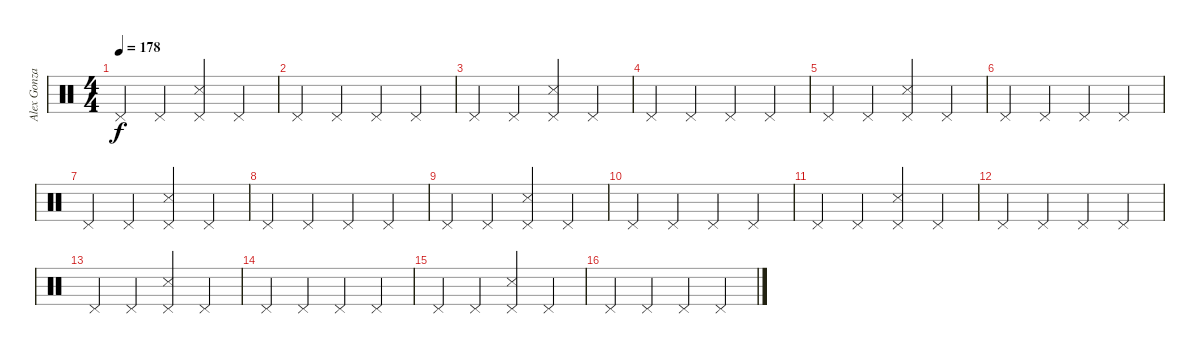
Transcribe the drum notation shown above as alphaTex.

\track ("Alex Gonzales" "Alex Gonza") {instrument percussion}
\staff {score}
\articulation defaults
\ts (4 4)
\tempo 178
\clef neutral
\ks c "Pedal Hi-Hat (hit)".4{dy f} "Pedal Hi-Hat (hit)".4
("Pedal Hi-Hat (hit)" "Snare (side stick) 3").4 "Pedal Hi-Hat (hit)".4 |
"Pedal Hi-Hat (hit)".4 "Pedal Hi-Hat (hit)".4 "Pedal Hi-Hat (hit)".4 "Pedal Hi-Hat (hit)".4 |
"Pedal Hi-Hat (hit)".4 "Pedal Hi-Hat (hit)".4 ("Pedal Hi-Hat (hit)" "Snare (side stick) 3").4 "Pedal Hi-Hat (hit)".4 |
"Pedal Hi-Hat (hit)".4 "Pedal Hi-Hat (hit)".4 "Pedal Hi-Hat (hit)".4 "Pedal Hi-Hat (hit)".4 |
"Pedal Hi-Hat (hit)".4 "Pedal Hi-Hat (hit)".4 ("Pedal Hi-Hat (hit)" "Snare (side stick) 3").4 "Pedal Hi-Hat (hit)".4 |
"Pedal Hi-Hat (hit)".4 "Pedal Hi-Hat (hit)".4 "Pedal Hi-Hat (hit)".4 "Pedal Hi-Hat (hit)".4 |
"Pedal Hi-Hat (hit)".4 "Pedal Hi-Hat (hit)".4 ("Pedal Hi-Hat (hit)" "Snare (side stick) 3").4 "Pedal Hi-Hat (hit)".4 |
"Pedal Hi-Hat (hit)".4 "Pedal Hi-Hat (hit)".4 "Pedal Hi-Hat (hit)".4 "Pedal Hi-Hat (hit)".4 |
"Pedal Hi-Hat (hit)".4 "Pedal Hi-Hat (hit)".4 ("Pedal Hi-Hat (hit)" "Snare (side stick) 3").4 "Pedal Hi-Hat (hit)".4 |
"Pedal Hi-Hat (hit)".4 "Pedal Hi-Hat (hit)".4 "Pedal Hi-Hat (hit)".4 "Pedal Hi-Hat (hit)".4 |
"Pedal Hi-Hat (hit)".4 "Pedal Hi-Hat (hit)".4 ("Pedal Hi-Hat (hit)" "Snare (side stick) 3").4 "Pedal Hi-Hat (hit)".4 |
"Pedal Hi-Hat (hit)".4 "Pedal Hi-Hat (hit)".4 "Pedal Hi-Hat (hit)".4 "Pedal Hi-Hat (hit)".4 |
"Pedal Hi-Hat (hit)".4 "Pedal Hi-Hat (hit)".4 ("Pedal Hi-Hat (hit)" "Snare (side stick) 3").4 "Pedal Hi-Hat (hit)".4 |
"Pedal Hi-Hat (hit)".4 "Pedal Hi-Hat (hit)".4 "Pedal Hi-Hat (hit)".4 "Pedal Hi-Hat (hit)".4 |
"Pedal Hi-Hat (hit)".4 "Pedal Hi-Hat (hit)".4 ("Pedal Hi-Hat (hit)" "Snare (side stick) 3").4 "Pedal Hi-Hat (hit)".4 |
"Pedal Hi-Hat (hit)".4 "Pedal Hi-Hat (hit)".4 "Pedal Hi-Hat (hit)".4 "Pedal Hi-Hat (hit)".4
